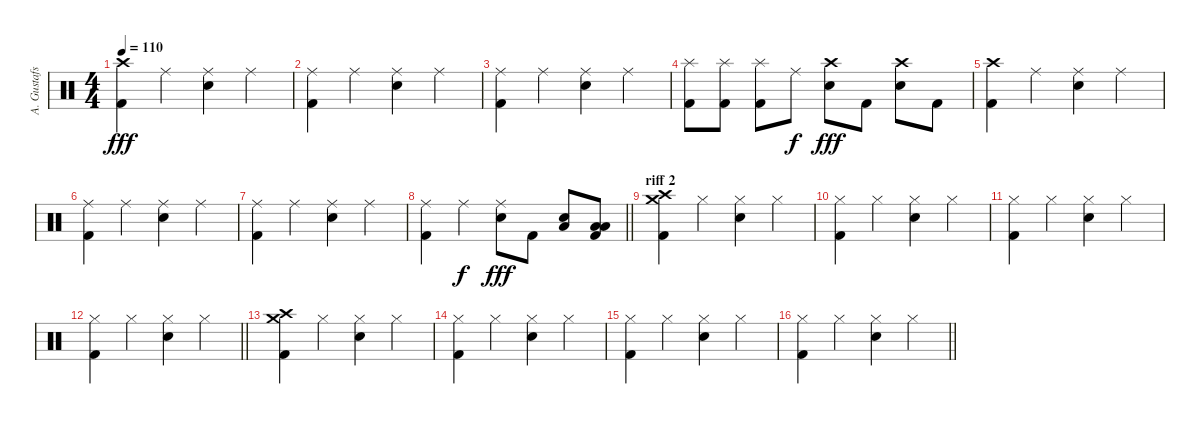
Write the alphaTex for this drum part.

\track ("A. Gustafsson" "A. Gustafs") {instrument percussion}
\staff {score}
\articulation defaults
\ts (4 4)
\tempo 110
\clef neutral
\ks c
("Crash high (hit)" "Kick (hit) 2").4{dy fff} "Ride (middle)".4 ("Ride (middle)" "Electric Snare (hit)").4 "Ride (middle)".4 |
("Ride (middle)" "Kick (hit) 2").4 "Ride (middle)".4 ("Ride (middle)" "Electric Snare (hit)").4 "Ride (middle)".4 |
("Ride (middle)" "Kick (hit) 2").4 "Ride (middle)".4 ("Ride (middle)" "Electric Snare (hit)").4 "Ride (middle)".4 |
("Splash (hit)" "Kick (hit) 2").8 ("Splash (hit)" "Kick (hit) 2").8 ("Splash (hit)" "Kick (hit) 2").8 "Ride (middle)".8{dy f} ("Crash high (hit)" "Snare (hit) 2").8{dy fff} "Kick (hit) 2".8 ("Crash high (hit)" "Snare (hit) 2").8 "Kick (hit) 2".8 |
("Crash high (hit)" "Kick (hit) 2").4 "Ride (middle)".4 ("Ride (middle)" "Electric Snare (hit)").4 "Ride (middle)".4 |
("Ride (middle)" "Kick (hit) 2").4 "Ride (middle)".4 ("Ride (middle)" "Electric Snare (hit)").4 "Ride (middle)".4 |
("Ride (middle)" "Kick (hit) 2").4 "Ride (middle)".4 ("Ride (middle)" "Electric Snare (hit)").4 "Ride (middle)".4 |
\barLineRight lightlight
("Ride (middle)" "Kick (hit) 2").4 "Ride (middle)".4{dy f} ("Ride (middle)" "Snare (hit) 2").8{dy fff} "Kick (hit) 2".8 ("Low Tom (hit)" "Electric Snare (hit)").8 ("Low Floor Tom (hit)" "Low Floor Tom (hit)" "Kick (hit) 2").8 |
\section ("" "riff 2")
("Crash high (hit)" "Crash medium (hit)" "Kick (hit) 2").4 "Hi-Hat (closed)".4 ("Hi-Hat (closed)" "Snare (hit) 2").4 "Hi-Hat (closed)".4 |
("Hi-Hat (closed)" "Kick (hit) 2").4 "Hi-Hat (closed)".4 ("Hi-Hat (closed)" "Snare (hit) 2").4 "Hi-Hat (closed)".4 |
("Hi-Hat (closed)" "Kick (hit) 2").4 "Hi-Hat (closed)".4 ("Hi-Hat (closed)" "Snare (hit) 2").4 "Hi-Hat (closed)".4 |
\barLineRight lightlight
("Hi-Hat (closed)" "Kick (hit) 2").4 "Hi-Hat (closed)".4 ("Hi-Hat (closed)" "Snare (hit) 2").4 "Hi-Hat (closed)".4 |
("Crash high (hit)" "Crash medium (hit)" "Kick (hit) 2").4 "Hi-Hat (closed)".4 ("Hi-Hat (closed)" "Snare (hit) 2").4 "Hi-Hat (closed)".4 |
("Hi-Hat (closed)" "Kick (hit) 2").4 "Hi-Hat (closed)".4 ("Hi-Hat (closed)" "Snare (hit) 2").4 "Hi-Hat (closed)".4 |
("Hi-Hat (closed)" "Kick (hit) 2").4 "Hi-Hat (closed)".4 ("Hi-Hat (closed)" "Snare (hit) 2").4 "Hi-Hat (closed)".4 |
\barLineRight lightlight
("Hi-Hat (closed)" "Kick (hit) 2").4 "Hi-Hat (closed)".4 ("Hi-Hat (closed)" "Snare (hit) 2").4 "Hi-Hat (closed)".4
